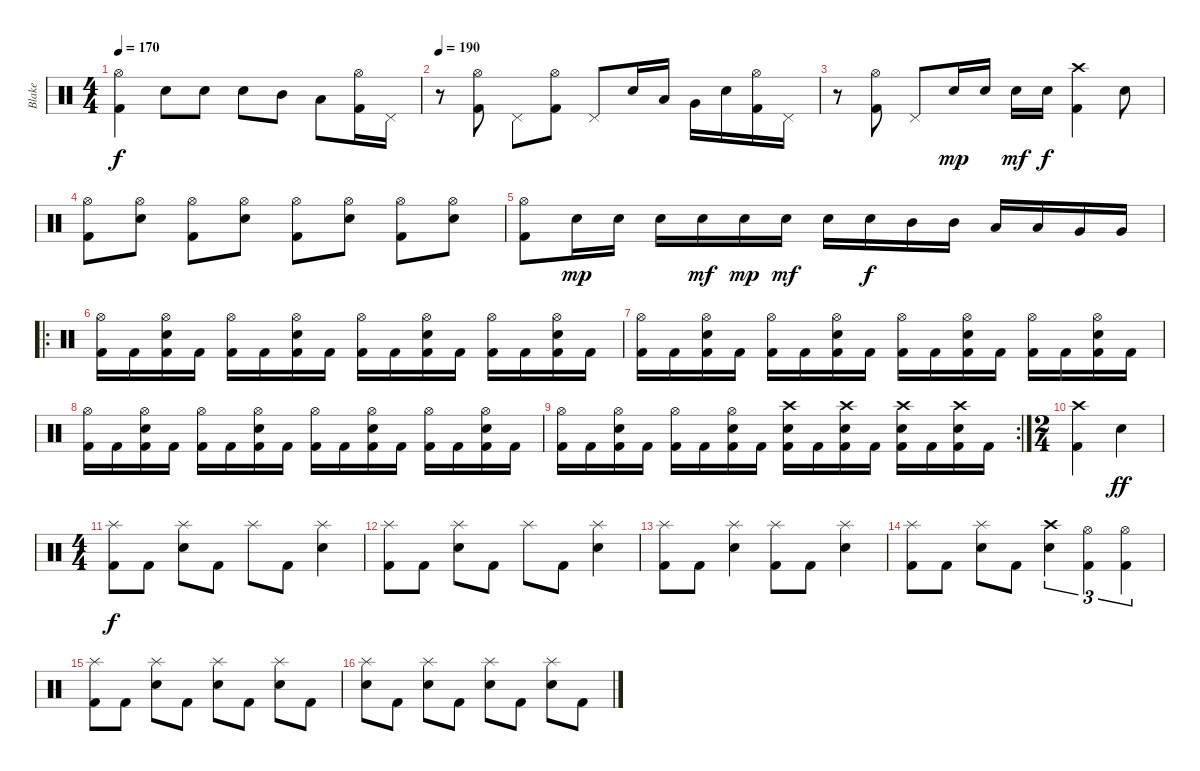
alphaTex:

\track ("Blake" "Blake") {instrument percussion}
\staff {score}
\articulation defaults
\ts (4 4)
\tempo 170
\clef neutral
\ks c
("Hi-Hat (open)" "Kick (hit) 2").4{dy f} "Snare (hit) 2".8 "Snare (hit) 2".8 "Snare (hit) 2".8 "Mid Tom (hit)".8 "Low Tom (hit)".8 ("Hi-Hat (open)" "Kick (hit) 2").16 "Pedal Hi-Hat (hit)".16 |
\tempo 190
r.8 ("Hi-Hat (open)" "Kick (hit) 2").8 "Pedal Hi-Hat (hit)".8 ("Hi-Hat (open)" "Kick (hit) 2").8 "Pedal Hi-Hat (hit)".8 "Snare (hit) 2".16 "Low Tom (hit)".16 "Very Low Tom (hit)".16 "Snare (hit) 2".16 ("Hi-Hat (open)" "Kick (hit) 2").16 "Pedal Hi-Hat (hit)".16 |
r.8 ("Hi-Hat (open)" "Kick (hit) 2").8 "Pedal Hi-Hat (hit)".8 "Snare (hit) 2".16{dy mp} "Snare (hit) 2".16 "Snare (hit) 2".16{dy mf} "Snare (hit) 2".16{dy f} ("Crash high (hit)" "Kick (hit) 2").4 "Snare (hit) 2".8 |
("Hi-Hat (open)" "Kick (hit) 2").8 ("Hi-Hat (open)" "Snare (hit) 2").8 ("Hi-Hat (open)" "Kick (hit) 2").8 ("Hi-Hat (open)" "Snare (hit) 2").8 ("Hi-Hat (open)" "Kick (hit) 2").8 ("Hi-Hat (open)" "Snare (hit) 2").8 ("Hi-Hat (open)" "Kick (hit) 2").8 ("Hi-Hat (open)" "Snare (hit) 2").8 |
("Hi-Hat (open)" "Kick (hit) 2").8 "Snare (hit) 2".16{dy mp} "Snare (hit) 2".16 "Snare (hit) 2".16 "Snare (hit) 2".16{dy mf} "Snare (hit) 2".16{dy mp} "Snare (hit) 2".16{dy mf} "Snare (hit) 2".16 "Snare (hit) 2".16{dy f} "Mid Tom (hit)".16 "Mid Tom (hit)".16 "Low Tom (hit)".16 "Low Tom (hit)".16 "Very Low Tom (hit)".16 "Very Low Tom (hit)".16 |
\ro
("Hi-Hat (open)" "Kick (hit) 2").16 "Kick (hit) 2".16 ("Hi-Hat (open)" "Snare (hit) 2" "Kick (hit) 2").16 "Kick (hit) 2".16 ("Hi-Hat (open)" "Kick (hit) 2").16 "Kick (hit) 2".16 ("Hi-Hat (open)" "Snare (hit) 2" "Kick (hit) 2").16 "Kick (hit) 2".16 ("Hi-Hat (open)" "Kick (hit) 2").16 "Kick (hit) 2".16 ("Hi-Hat (open)" "Snare (hit) 2" "Kick (hit) 2").16 "Kick (hit) 2".16 ("Hi-Hat (open)" "Kick (hit) 2").16 "Kick (hit) 2".16 ("Hi-Hat (open)" "Snare (hit) 2" "Kick (hit) 2").16 "Kick (hit) 2".16 |
("Hi-Hat (open)" "Kick (hit) 2").16 "Kick (hit) 2".16 ("Hi-Hat (open)" "Snare (hit) 2" "Kick (hit) 2").16 "Kick (hit) 2".16 ("Hi-Hat (open)" "Kick (hit) 2").16 "Kick (hit) 2".16 ("Hi-Hat (open)" "Snare (hit) 2" "Kick (hit) 2").16 "Kick (hit) 2".16 ("Hi-Hat (open)" "Kick (hit) 2").16 "Kick (hit) 2".16 ("Hi-Hat (open)" "Snare (hit) 2" "Kick (hit) 2").16 "Kick (hit) 2".16 ("Hi-Hat (open)" "Kick (hit) 2").16 "Kick (hit) 2".16 ("Hi-Hat (open)" "Snare (hit) 2" "Kick (hit) 2").16 "Kick (hit) 2".16 |
("Hi-Hat (open)" "Kick (hit) 2").16 "Kick (hit) 2".16 ("Hi-Hat (open)" "Snare (hit) 2" "Kick (hit) 2").16 "Kick (hit) 2".16 ("Hi-Hat (open)" "Kick (hit) 2").16 "Kick (hit) 2".16 ("Hi-Hat (open)" "Snare (hit) 2" "Kick (hit) 2").16 "Kick (hit) 2".16 ("Hi-Hat (open)" "Kick (hit) 2").16 "Kick (hit) 2".16 ("Hi-Hat (open)" "Snare (hit) 2" "Kick (hit) 2").16 "Kick (hit) 2".16 ("Hi-Hat (open)" "Kick (hit) 2").16 "Kick (hit) 2".16 ("Hi-Hat (open)" "Snare (hit) 2" "Kick (hit) 2").16 "Kick (hit) 2".16 |
\rc 2
("Hi-Hat (open)" "Kick (hit) 2").16 "Kick (hit) 2".16 ("Hi-Hat (open)" "Snare (hit) 2" "Kick (hit) 2").16 "Kick (hit) 2".16 ("Hi-Hat (open)" "Kick (hit) 2").16 "Kick (hit) 2".16 ("Hi-Hat (open)" "Snare (hit) 2" "Kick (hit) 2").16 "Kick (hit) 2".16 ("Crash high (hit)" "Snare (hit) 2" "Kick (hit) 2").16 "Kick (hit) 2".16 ("Crash high (hit)" "Snare (hit) 2" "Kick (hit) 2").16 "Kick (hit) 2".16 ("Crash high (hit)" "Snare (hit) 2" "Kick (hit) 2").16 "Kick (hit) 2".16 ("Crash high (hit)" "Snare (hit) 2" "Kick (hit) 2").16 "Kick (hit) 2".16 |
\ts (2 4)
("Crash high (hit)" "Kick (hit) 2").4 "Snare (hit) 2".4{dy ff} |
\ts (4 4)
("Splash (hit)" "Kick (hit) 2").8{dy f} "Kick (hit) 2".8 ("Splash (hit)" "Snare (hit) 2").8 "Kick (hit) 2".8 "Splash (hit)".8 "Kick (hit) 2".8 ("Splash (hit)" "Snare (hit) 2").4 |
("Splash (hit)" "Kick (hit) 2").8 "Kick (hit) 2".8 ("Splash (hit)" "Snare (hit) 2").8 "Kick (hit) 2".8 "Splash (hit)".8 "Kick (hit) 2".8 ("Splash (hit)" "Snare (hit) 2").4 |
("Splash (hit)" "Kick (hit) 2").8 "Kick (hit) 2".8 ("Splash (hit)" "Snare (hit) 2").4 ("Splash (hit)" "Kick (hit) 2").8 "Kick (hit) 2".8 ("Splash (hit)" "Snare (hit) 2").4 |
("Splash (hit)" "Kick (hit) 2").8 "Kick (hit) 2".8 ("Splash (hit)" "Snare (hit) 2").8 "Kick (hit) 2".8 ("Crash high (hit)" "Snare (hit) 2").4{tu (3 2)} ("Hi-Hat (open)" "Kick (hit) 2").4{tu (3 2)} ("Hi-Hat (open)" "Kick (hit) 2").4{tu (3 2)} |
("Splash (hit)" "Kick (hit) 2").8 "Kick (hit) 2".8 ("Splash (hit)" "Snare (hit) 2").8 "Kick (hit) 2".8 ("Splash (hit)" "Snare (hit) 2").8 "Kick (hit) 2".8 ("Splash (hit)" "Snare (hit) 2").8 "Kick (hit) 2".8 |
("Splash (hit)" "Snare (hit) 2").8 "Kick (hit) 2".8 ("Splash (hit)" "Snare (hit) 2").8 "Kick (hit) 2".8 ("Splash (hit)" "Snare (hit) 2").8 "Kick (hit) 2".8 ("Splash (hit)" "Snare (hit) 2").8 "Kick (hit) 2".8
